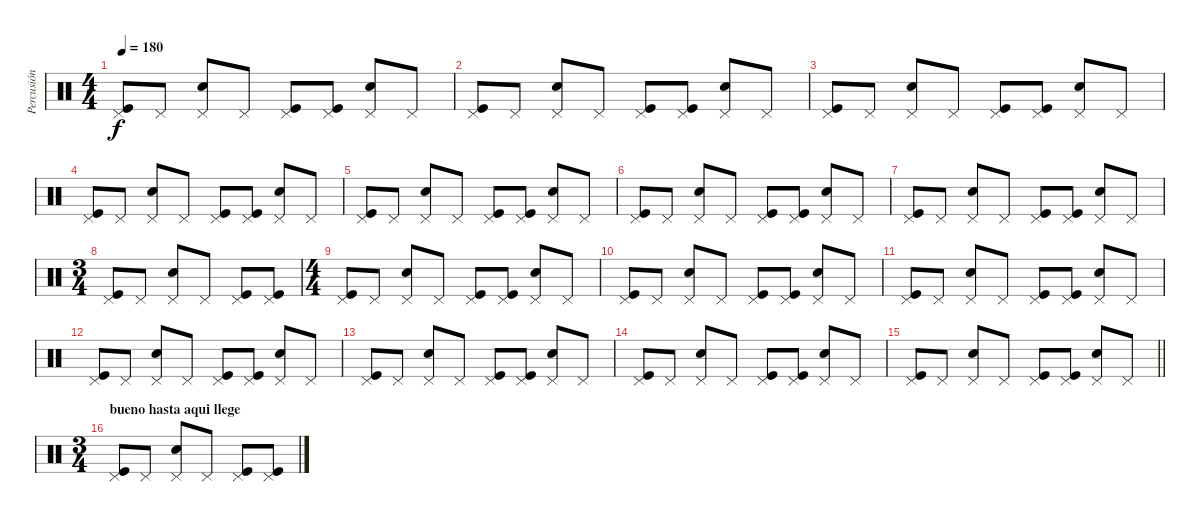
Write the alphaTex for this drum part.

\track ("Percusión" "Percusión") {instrument percussion}
\staff {score}
\articulation defaults
\ts (4 4)
\tempo 180
\clef neutral
\ks c
("Kick (hit)" "Pedal Hi-Hat (hit)").8{dy f} "Pedal Hi-Hat (hit)".8 ("Snare (hit) 2" "Pedal Hi-Hat (hit)").8 "Pedal Hi-Hat (hit)".8 ("Kick (hit)" "Pedal Hi-Hat (hit)").8 ("Kick (hit)" "Pedal Hi-Hat (hit)").8 ("Snare (hit) 2" "Pedal Hi-Hat (hit)").8 "Pedal Hi-Hat (hit)".8 |
("Kick (hit)" "Pedal Hi-Hat (hit)").8 "Pedal Hi-Hat (hit)".8 ("Snare (hit) 2" "Pedal Hi-Hat (hit)").8 "Pedal Hi-Hat (hit)".8 ("Kick (hit)" "Pedal Hi-Hat (hit)").8 ("Kick (hit)" "Pedal Hi-Hat (hit)").8 ("Snare (hit) 2" "Pedal Hi-Hat (hit)").8 "Pedal Hi-Hat (hit)".8 |
("Kick (hit)" "Pedal Hi-Hat (hit)").8 "Pedal Hi-Hat (hit)".8 ("Snare (hit) 2" "Pedal Hi-Hat (hit)").8 "Pedal Hi-Hat (hit)".8 ("Kick (hit)" "Pedal Hi-Hat (hit)").8 ("Kick (hit)" "Pedal Hi-Hat (hit)").8 ("Snare (hit) 2" "Pedal Hi-Hat (hit)").8 "Pedal Hi-Hat (hit)".8 |
("Kick (hit)" "Pedal Hi-Hat (hit)").8 "Pedal Hi-Hat (hit)".8 ("Snare (hit) 2" "Pedal Hi-Hat (hit)").8 "Pedal Hi-Hat (hit)".8 ("Kick (hit)" "Pedal Hi-Hat (hit)").8 ("Kick (hit)" "Pedal Hi-Hat (hit)").8 ("Snare (hit) 2" "Pedal Hi-Hat (hit)").8 "Pedal Hi-Hat (hit)".8 |
("Kick (hit)" "Pedal Hi-Hat (hit)").8 "Pedal Hi-Hat (hit)".8 ("Snare (hit) 2" "Pedal Hi-Hat (hit)").8 "Pedal Hi-Hat (hit)".8 ("Kick (hit)" "Pedal Hi-Hat (hit)").8 ("Kick (hit)" "Pedal Hi-Hat (hit)").8 ("Snare (hit) 2" "Pedal Hi-Hat (hit)").8 "Pedal Hi-Hat (hit)".8 |
("Kick (hit)" "Pedal Hi-Hat (hit)").8 "Pedal Hi-Hat (hit)".8 ("Snare (hit) 2" "Pedal Hi-Hat (hit)").8 "Pedal Hi-Hat (hit)".8 ("Kick (hit)" "Pedal Hi-Hat (hit)").8 ("Kick (hit)" "Pedal Hi-Hat (hit)").8 ("Snare (hit) 2" "Pedal Hi-Hat (hit)").8 "Pedal Hi-Hat (hit)".8 |
("Kick (hit)" "Pedal Hi-Hat (hit)").8 "Pedal Hi-Hat (hit)".8 ("Snare (hit) 2" "Pedal Hi-Hat (hit)").8 "Pedal Hi-Hat (hit)".8 ("Kick (hit)" "Pedal Hi-Hat (hit)").8 ("Kick (hit)" "Pedal Hi-Hat (hit)").8 ("Snare (hit) 2" "Pedal Hi-Hat (hit)").8 "Pedal Hi-Hat (hit)".8 |
\ts (3 4)
("Kick (hit)" "Pedal Hi-Hat (hit)").8 "Pedal Hi-Hat (hit)".8 ("Snare (hit) 2" "Pedal Hi-Hat (hit)").8 "Pedal Hi-Hat (hit)".8 ("Kick (hit)" "Pedal Hi-Hat (hit)").8 ("Kick (hit)" "Pedal Hi-Hat (hit)").8 |
\ts (4 4)
("Kick (hit)" "Pedal Hi-Hat (hit)").8 "Pedal Hi-Hat (hit)".8 ("Snare (hit) 2" "Pedal Hi-Hat (hit)").8 "Pedal Hi-Hat (hit)".8 ("Kick (hit)" "Pedal Hi-Hat (hit)").8 ("Kick (hit)" "Pedal Hi-Hat (hit)").8 ("Snare (hit) 2" "Pedal Hi-Hat (hit)").8 "Pedal Hi-Hat (hit)".8 |
("Kick (hit)" "Pedal Hi-Hat (hit)").8 "Pedal Hi-Hat (hit)".8 ("Snare (hit) 2" "Pedal Hi-Hat (hit)").8 "Pedal Hi-Hat (hit)".8 ("Kick (hit)" "Pedal Hi-Hat (hit)").8 ("Kick (hit)" "Pedal Hi-Hat (hit)").8 ("Snare (hit) 2" "Pedal Hi-Hat (hit)").8 "Pedal Hi-Hat (hit)".8 |
("Kick (hit)" "Pedal Hi-Hat (hit)").8 "Pedal Hi-Hat (hit)".8 ("Snare (hit) 2" "Pedal Hi-Hat (hit)").8 "Pedal Hi-Hat (hit)".8 ("Kick (hit)" "Pedal Hi-Hat (hit)").8 ("Kick (hit)" "Pedal Hi-Hat (hit)").8 ("Snare (hit) 2" "Pedal Hi-Hat (hit)").8 "Pedal Hi-Hat (hit)".8 |
("Kick (hit)" "Pedal Hi-Hat (hit)").8 "Pedal Hi-Hat (hit)".8 ("Snare (hit) 2" "Pedal Hi-Hat (hit)").8 "Pedal Hi-Hat (hit)".8 ("Kick (hit)" "Pedal Hi-Hat (hit)").8 ("Kick (hit)" "Pedal Hi-Hat (hit)").8 ("Snare (hit) 2" "Pedal Hi-Hat (hit)").8 "Pedal Hi-Hat (hit)".8 |
("Kick (hit)" "Pedal Hi-Hat (hit)").8 "Pedal Hi-Hat (hit)".8 ("Snare (hit) 2" "Pedal Hi-Hat (hit)").8 "Pedal Hi-Hat (hit)".8 ("Kick (hit)" "Pedal Hi-Hat (hit)").8 ("Kick (hit)" "Pedal Hi-Hat (hit)").8 ("Snare (hit) 2" "Pedal Hi-Hat (hit)").8 "Pedal Hi-Hat (hit)".8 |
("Kick (hit)" "Pedal Hi-Hat (hit)").8 "Pedal Hi-Hat (hit)".8 ("Snare (hit) 2" "Pedal Hi-Hat (hit)").8 "Pedal Hi-Hat (hit)".8 ("Kick (hit)" "Pedal Hi-Hat (hit)").8 ("Kick (hit)" "Pedal Hi-Hat (hit)").8 ("Snare (hit) 2" "Pedal Hi-Hat (hit)").8 "Pedal Hi-Hat (hit)".8 |
\barLineRight lightlight
("Kick (hit)" "Pedal Hi-Hat (hit)").8 "Pedal Hi-Hat (hit)".8 ("Snare (hit) 2" "Pedal Hi-Hat (hit)").8 "Pedal Hi-Hat (hit)".8 ("Kick (hit)" "Pedal Hi-Hat (hit)").8 ("Kick (hit)" "Pedal Hi-Hat (hit)").8 ("Snare (hit) 2" "Pedal Hi-Hat (hit)").8 "Pedal Hi-Hat (hit)".8 |
\ts (3 4)
\section ("" "bueno hasta aqui llege ")
("Kick (hit)" "Pedal Hi-Hat (hit)").8 "Pedal Hi-Hat (hit)".8 ("Snare (hit) 2" "Pedal Hi-Hat (hit)").8 "Pedal Hi-Hat (hit)".8 ("Kick (hit)" "Pedal Hi-Hat (hit)").8 ("Kick (hit)" "Pedal Hi-Hat (hit)").8
